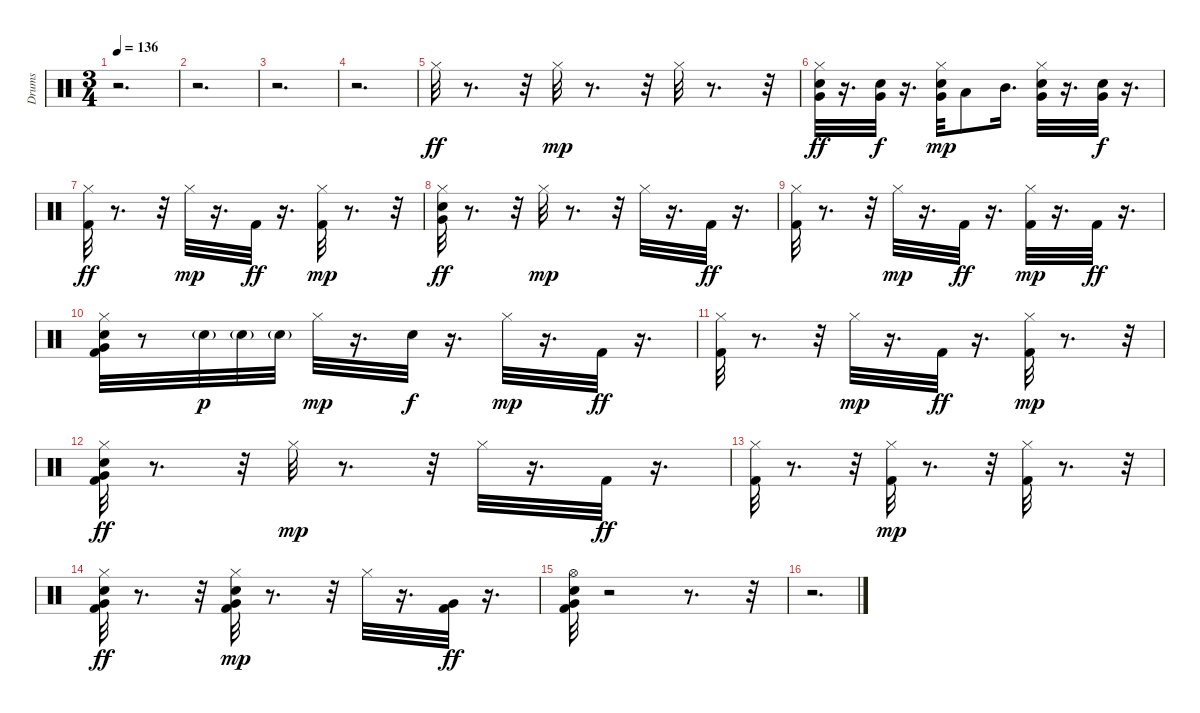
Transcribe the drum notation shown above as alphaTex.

\track ("Drums  " "Drums  ") {instrument percussion}
\staff {score}
\articulation defaults
\ts (3 4)
\tempo 136
\clef neutral
\ks c
r.2{d dy mf} |
r.2{d} |
r.2{d} |
r.2{d} |
"Hi-Hat (closed)".32{dy ff} r.8{d} r.32 "Hi-Hat (closed)".32{dy mp} r.8{d} r.32 "Hi-Hat (closed)".32 r.8{d} r.32 |
("Snare (hit) 2" "Very Low Tom (hit)" "Hi-Hat (closed)").32{dy ff} r.16{d} ("Snare (hit) 2" "Very Low Tom (hit)").32{dy f} r.16{d} ("Snare (hit) 2" "Very Low Tom (hit)" "Hi-Hat (closed)").32{dy mp} "Low Tom (hit)".8 "Mid Tom (hit)".16{d} ("Snare (hit) 2" "Very Low Tom (hit)" "Hi-Hat (closed)").32 r.16{d} ("Snare (hit) 2" "Very Low Tom (hit)").32{dy f} r.16{d} |
("Kick (hit) 2" "Hi-Hat (closed)").32{dy ff} r.8{d} r.32 "Hi-Hat (closed)".32{dy mp} r.16{d} "Kick (hit) 2".32{dy ff} r.16{d} ("Kick (hit) 2" "Hi-Hat (closed)").32{dy mp} r.8{d} r.32 |
("Snare (hit) 2" "Hi-Hat (closed)" "Very Low Tom (hit)").32{dy ff} r.8{d} r.32 "Hi-Hat (closed)".32{dy mp} r.8{d} r.32 "Hi-Hat (closed)".32 r.16{d} "Kick (hit) 2".32{dy ff} r.16{d} |
("Kick (hit) 2" "Hi-Hat (closed)").32 r.8{d} r.32 "Hi-Hat (closed)".32{dy mp} r.16{d} "Kick (hit) 2".32{dy ff} r.16{d} ("Kick (hit) 2" "Hi-Hat (closed)").32{dy mp} r.16{d} "Kick (hit) 2".32{dy ff} r.16{d} |
("Snare (hit) 2" "Kick (hit) 2" "Hi-Hat (closed)" "Very Low Tom (hit)").32 r.8 "Snare (hit) 2"{g}.32{dy p} "Snare (hit) 2"{g}.32 "Snare (hit) 2"{g}.32 "Hi-Hat (closed)".32{dy mp} r.16{d} "Snare (hit) 2".32{dy f} r.16{d} "Hi-Hat (closed)".32{dy mp} r.16{d} "Kick (hit) 2".32{dy ff} r.16{d} |
("Kick (hit) 2" "Hi-Hat (closed)").32 r.8{d} r.32 "Hi-Hat (closed)".32{dy mp} r.16{d} "Kick (hit) 2".32{dy ff} r.16{d} ("Kick (hit) 2" "Hi-Hat (closed)").32{dy mp} r.8{d} r.32 |
("Kick (hit) 2" "Snare (hit) 2" "Very Low Tom (hit)" "Hi-Hat (closed)").32{dy ff} r.8{d} r.32 "Hi-Hat (closed)".32{dy mp} r.8{d} r.32 "Hi-Hat (closed)".32 r.16{d} "Kick (hit) 2".32{dy ff} r.16{d} |
("Kick (hit) 2" "Hi-Hat (closed)").32 r.8{d} r.32 ("Kick (hit) 2" "Hi-Hat (closed)").32{dy mp} r.8{d} r.32 ("Kick (hit) 2" "Hi-Hat (closed)").32 r.8{d} r.32 |
("Snare (hit) 2" "Kick (hit) 2" "Very Low Tom (hit)" "Hi-Hat (closed)").32{dy ff} r.8{d} r.32 ("Snare (hit) 2" "Kick (hit) 2" "Hi-Hat (closed)" "Very Low Tom (hit)").32{dy mp} r.8{d} r.32 "Hi-Hat (closed)".32 r.16{d} ("Kick (hit) 2" "Very Low Tom (hit)").32{dy ff} r.16{d} |
("Kick (hit) 2" "Snare (hit) 2" "Very Low Tom (hit)" "Hi-Hat (open)").32 r.2 r.8{d} r.32 |
r.2{d}
